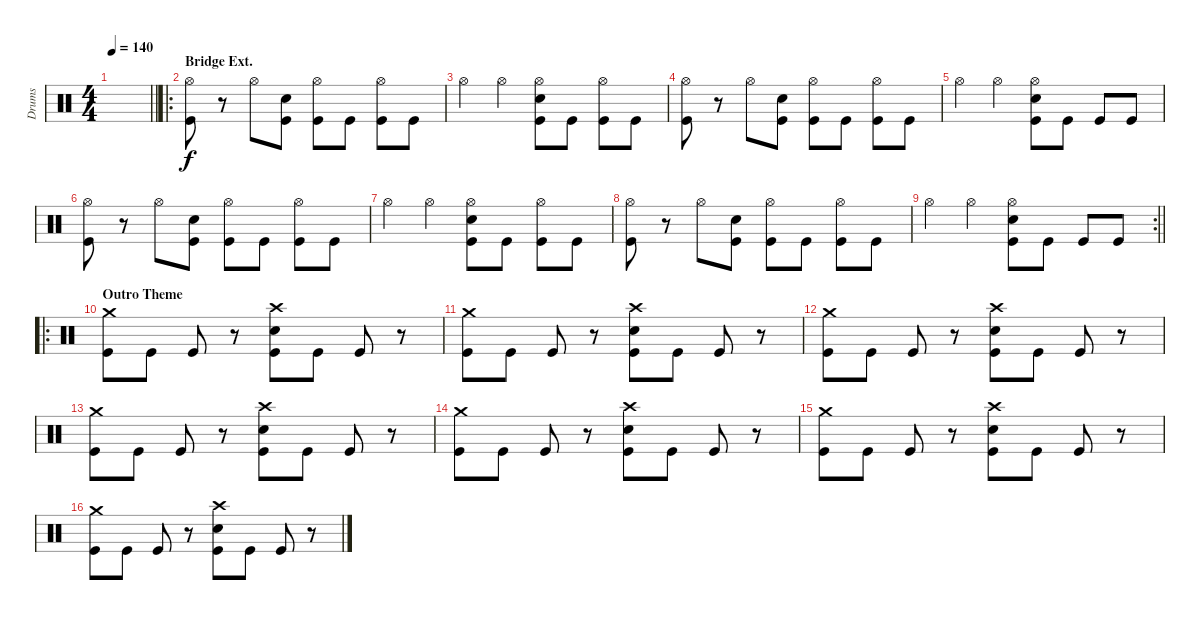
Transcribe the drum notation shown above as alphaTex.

\track ("Drums" "Drums") {instrument percussion}
\staff {score}
\articulation defaults
\ts (4 4)
\tempo 140
\clef neutral
\barLineRight lightlight
\ks c
|
\ro
\section ("" "Bridge Ext.")
("Hi-Hat (open)" "Kick (hit)").8 r.8 "Hi-Hat (open)".8 ("Snare (hit) 2" "Kick (hit)").8 ("Hi-Hat (open)" "Kick (hit)").8 "Kick (hit)".8 ("Hi-Hat (open)" "Kick (hit)").8 "Kick (hit)".8 |
"Hi-Hat (open)".4 "Hi-Hat (open)".4 ("Hi-Hat (open)" "Snare (hit) 2" "Kick (hit)").8 "Kick (hit)".8 ("Hi-Hat (open)" "Kick (hit)").8 "Kick (hit)".8 |
("Hi-Hat (open)" "Kick (hit)").8 r.8 "Hi-Hat (open)".8 ("Snare (hit) 2" "Kick (hit)").8 ("Hi-Hat (open)" "Kick (hit)").8 "Kick (hit)".8 ("Hi-Hat (open)" "Kick (hit)").8 "Kick (hit)".8 |
"Hi-Hat (open)".4 "Hi-Hat (open)".4 ("Hi-Hat (open)" "Snare (hit) 2" "Kick (hit)").8 "Kick (hit)".8 "Kick (hit)".8 "Kick (hit)".8 |
("Hi-Hat (open)" "Kick (hit)").8 r.8 "Hi-Hat (open)".8 ("Snare (hit) 2" "Kick (hit)").8 ("Hi-Hat (open)" "Kick (hit)").8 "Kick (hit)".8 ("Hi-Hat (open)" "Kick (hit)").8 "Kick (hit)".8 |
"Hi-Hat (open)".4 "Hi-Hat (open)".4 ("Hi-Hat (open)" "Snare (hit) 2" "Kick (hit)").8 "Kick (hit)".8 ("Hi-Hat (open)" "Kick (hit)").8 "Kick (hit)".8 |
("Hi-Hat (open)" "Kick (hit)").8 r.8 "Hi-Hat (open)".8 ("Snare (hit) 2" "Kick (hit)").8 ("Hi-Hat (open)" "Kick (hit)").8 "Kick (hit)".8 ("Hi-Hat (open)" "Kick (hit)").8 "Kick (hit)".8 |
\rc 2
\barLineRight lightlight "Hi-Hat (open)".4 "Hi-Hat (open)".4
("Hi-Hat (open)" "Snare (hit) 2" "Kick (hit)").8 "Kick (hit)".8 "Kick (hit)".8 "Kick (hit)".8 |
\ro
\section ("" "Outro Theme")
("Crash medium (hit)" "Kick (hit)").8 "Kick (hit)".8 "Kick (hit)".8 r.8 ("Crash high (hit)" "Snare (hit) 2" "Kick (hit)").8 "Kick (hit)".8 "Kick (hit)".8 r.8 |
("Crash medium (hit)" "Kick (hit)").8 "Kick (hit)".8 "Kick (hit)".8 r.8 ("Crash high (hit)" "Snare (hit) 2" "Kick (hit)").8 "Kick (hit)".8 "Kick (hit)".8 r.8 |
("Crash medium (hit)" "Kick (hit)").8 "Kick (hit)".8 "Kick (hit)".8 r.8 ("Crash high (hit)" "Snare (hit) 2" "Kick (hit)").8 "Kick (hit)".8 "Kick (hit)".8 r.8 |
("Crash medium (hit)" "Kick (hit)").8 "Kick (hit)".8 "Kick (hit)".8 r.8 ("Crash high (hit)" "Snare (hit) 2" "Kick (hit)").8 "Kick (hit)".8 "Kick (hit)".8 r.8 |
("Crash medium (hit)" "Kick (hit)").8 "Kick (hit)".8 "Kick (hit)".8 r.8 ("Crash high (hit)" "Snare (hit) 2" "Kick (hit)").8 "Kick (hit)".8 "Kick (hit)".8 r.8 |
("Crash medium (hit)" "Kick (hit)").8 "Kick (hit)".8 "Kick (hit)".8 r.8 ("Crash high (hit)" "Snare (hit) 2" "Kick (hit)").8 "Kick (hit)".8 "Kick (hit)".8 r.8 |
("Crash medium (hit)" "Kick (hit)").8 "Kick (hit)".8 "Kick (hit)".8 r.8 ("Crash high (hit)" "Snare (hit) 2" "Kick (hit)").8 "Kick (hit)".8 "Kick (hit)".8 r.8
